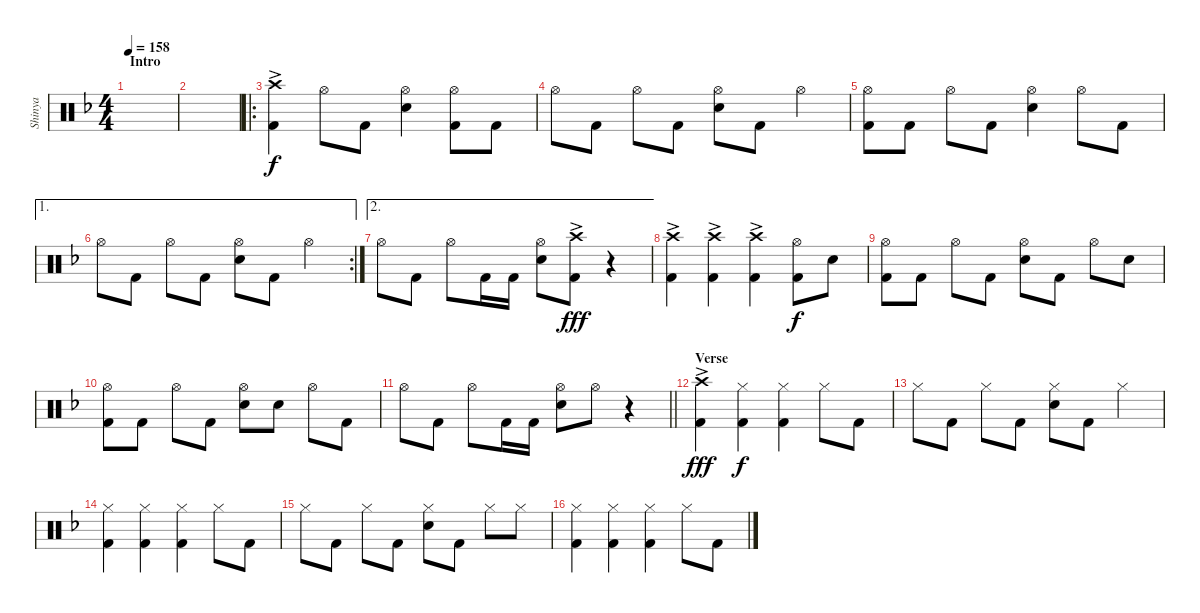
\track ("Shinya" "Shinya") {instrument percussion}
\staff {score}
\articulation defaults
\ts (4 4)
\section ("" "Intro")
\tempo 158
\clef neutral
\ks f
|
|
\ro
("Crash high (hit)"{ac} "Kick (hit) 2").4 "Hi-Hat (open)".8{dy f} "Kick (hit) 2".8 ("Hi-Hat (open)" "Snare (hit) 2").4 ("Hi-Hat (open)" "Kick (hit) 2").8 "Kick (hit) 2".8 |
"Hi-Hat (open)".8 "Kick (hit) 2".8 "Hi-Hat (open)".8 "Kick (hit) 2".8 ("Hi-Hat (open)" "Snare (hit) 2").8 "Kick (hit) 2".8 "Hi-Hat (open)".4 |
("Hi-Hat (open)" "Kick (hit) 2").8 "Kick (hit) 2".8 "Hi-Hat (open)".8 "Kick (hit) 2".8 ("Hi-Hat (open)" "Snare (hit) 2").4 "Hi-Hat (open)".8 "Kick (hit) 2".8 |
\ae 1
\rc 2 "Hi-Hat (open)".8 "Kick (hit) 2".8 "Hi-Hat (open)".8 "Kick (hit) 2".8
("Hi-Hat (open)" "Snare (hit) 2").8 "Kick (hit) 2".8 "Hi-Hat (open)".4 |
\ae 2 "Hi-Hat (open)".8 "Kick (hit) 2".8 "Hi-Hat (open)".8 "Kick (hit) 2".16 "Kick (hit) 2".16
("Hi-Hat (open)" "Snare (hit) 2").8 ("Crash high (hit)"{ac} "Kick (hit) 2").8{dy fff} r.4 |
("Crash high (hit)"{ac} "Kick (hit) 2").4 ("Crash high (hit)"{ac} "Kick (hit) 2").4 ("Crash high (hit)"{ac} "Kick (hit) 2").4 ("Hi-Hat (open)" "Kick (hit) 2").8{dy f} "Snare (hit) 2".8 |
("Hi-Hat (open)" "Kick (hit) 2").8 "Kick (hit) 2".8 "Hi-Hat (open)".8 "Kick (hit) 2".8 ("Hi-Hat (open)" "Snare (hit) 2").8 "Kick (hit) 2".8 "Hi-Hat (open)".8 "Snare (hit) 2".8 |
("Hi-Hat (open)" "Kick (hit) 2").8 "Kick (hit) 2".8 "Hi-Hat (open)".8 "Kick (hit) 2".8 ("Hi-Hat (open)" "Snare (hit) 2").8 "Snare (hit) 2".8 "Hi-Hat (open)".8 "Kick (hit) 2".8 |
\barLineRight lightlight "Hi-Hat (open)".8 "Kick (hit) 2".8 "Hi-Hat (open)".8 "Kick (hit) 2".16 "Kick (hit) 2".16
("Hi-Hat (open)" "Snare (hit) 2").8 "Hi-Hat (open)".8 r.4 |
\section ("" "Verse")
("Crash high (hit)"{ac} "Kick (hit) 2").4{dy fff} ("Hi-Hat (closed)" "Kick (hit) 2").4{dy f} ("Hi-Hat (closed)" "Kick (hit) 2").4 "Hi-Hat (closed)".8 "Kick (hit) 2".8 |
"Hi-Hat (closed)".8 "Kick (hit) 2".8 "Hi-Hat (closed)".8 "Kick (hit) 2".8 ("Hi-Hat (closed)" "Snare (hit) 2").8 "Kick (hit) 2".8 "Hi-Hat (closed)".4 |
("Hi-Hat (closed)" "Kick (hit) 2").4 ("Hi-Hat (closed)" "Kick (hit) 2").4 ("Hi-Hat (closed)" "Kick (hit) 2").4 "Hi-Hat (closed)".8 "Kick (hit) 2".8 |
"Hi-Hat (closed)".8 "Kick (hit) 2".8 "Hi-Hat (closed)".8 "Kick (hit) 2".8 ("Hi-Hat (closed)" "Snare (hit) 2").8 "Kick (hit) 2".8 "Hi-Hat (closed)".8 "Hi-Hat (closed)".8 |
("Hi-Hat (closed)" "Kick (hit) 2").4 ("Hi-Hat (closed)" "Kick (hit) 2").4 ("Hi-Hat (closed)" "Kick (hit) 2").4 "Hi-Hat (closed)".8 "Kick (hit) 2".8
